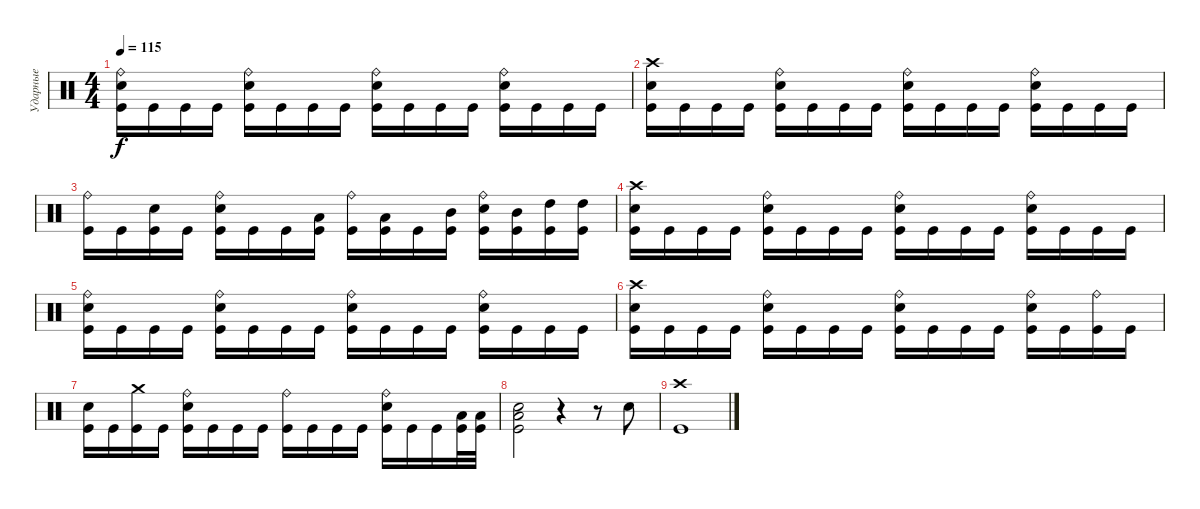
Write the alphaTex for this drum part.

\track ("Ударные" "Ударные") {instrument percussion}
\staff {score}
\articulation defaults
\ts (4 4)
\tempo 115
\clef neutral
\ks c
("Ride (bell)" "Electric Snare (hit)" "Kick (hit)").16{dy f} "Kick (hit)".16 "Kick (hit)".16 "Kick (hit)".16 ("Ride (bell)" "Electric Snare (hit)" "Kick (hit)").16 "Kick (hit)".16 "Kick (hit)".16 "Kick (hit)".16 ("Ride (bell)" "Electric Snare (hit)" "Kick (hit)").16 "Kick (hit)".16 "Kick (hit)".16 "Kick (hit)".16 ("Ride (bell)" "Electric Snare (hit)" "Kick (hit)").16 "Kick (hit)".16 "Kick (hit)".16 "Kick (hit)".16 |
("Crash high (hit)" "Electric Snare (hit)" "Kick (hit)").16 "Kick (hit)".16 "Kick (hit)".16 "Kick (hit)".16 ("Ride (bell)" "Electric Snare (hit)" "Kick (hit)").16 "Kick (hit)".16 "Kick (hit)".16 "Kick (hit)".16 ("Ride (bell)" "Electric Snare (hit)" "Kick (hit)").16 "Kick (hit)".16 "Kick (hit)".16 "Kick (hit)".16 ("Ride (bell)" "Electric Snare (hit)" "Kick (hit)").16 "Kick (hit)".16 "Kick (hit)".16 "Kick (hit)".16 |
("Ride (bell)" "Kick (hit)").16 "Kick (hit)".16 ("Electric Snare (hit)" "Kick (hit)").16 "Kick (hit)".16 ("Ride (bell)" "Electric Snare (hit)" "Kick (hit)").16 "Kick (hit)".16 "Kick (hit)".16 ("Low Tom (hit)" "Kick (hit)").16 ("Ride (bell)" "Kick (hit)").16 ("Low Tom (hit)" "Kick (hit)").16 "Kick (hit)".16 ("Mid Tom (hit)" "Kick (hit)").16 ("Ride (bell)" "Electric Snare (hit)" "Kick (hit)").16 ("Mid Tom (hit)" "Kick (hit)").16 ("High Tom (hit)" "Kick (hit)").16 ("High Tom (hit)" "Kick (hit)").16 |
("Crash high (hit)" "Electric Snare (hit)" "Kick (hit)").16 "Kick (hit)".16 "Kick (hit)".16 "Kick (hit)".16 ("Ride (bell)" "Electric Snare (hit)" "Kick (hit)").16 "Kick (hit)".16 "Kick (hit)".16 "Kick (hit)".16 ("Ride (bell)" "Electric Snare (hit)" "Kick (hit)").16 "Kick (hit)".16 "Kick (hit)".16 "Kick (hit)".16 ("Ride (bell)" "Electric Snare (hit)" "Kick (hit)").16 "Kick (hit)".16 "Kick (hit)".16 "Kick (hit)".16 |
("Ride (bell)" "Electric Snare (hit)" "Kick (hit)").16 "Kick (hit)".16 "Kick (hit)".16 "Kick (hit)".16 ("Ride (bell)" "Electric Snare (hit)" "Kick (hit)").16 "Kick (hit)".16 "Kick (hit)".16 "Kick (hit)".16 ("Ride (bell)" "Electric Snare (hit)" "Kick (hit)").16 "Kick (hit)".16 "Kick (hit)".16 "Kick (hit)".16 ("Ride (bell)" "Electric Snare (hit)" "Kick (hit)").16 "Kick (hit)".16 "Kick (hit)".16 "Kick (hit)".16 |
("Crash high (hit)" "Electric Snare (hit)" "Kick (hit)").16 "Kick (hit)".16 "Kick (hit)".16 "Kick (hit)".16 ("Ride (bell)" "Electric Snare (hit)" "Kick (hit)").16 "Kick (hit)".16 "Kick (hit)".16 "Kick (hit)".16 ("Ride (bell)" "Electric Snare (hit)" "Kick (hit)").16 "Kick (hit)".16 "Kick (hit)".16 "Kick (hit)".16 ("Ride (bell)" "Electric Snare (hit)" "Kick (hit)").16 "Kick (hit)".16 ("Ride (bell)" "Kick (hit)").16 "Kick (hit)".16 |
("Electric Snare (hit)" "Kick (hit)").16 "Kick (hit)".16 ("Crash medium (hit)" "Kick (hit)").16 "Kick (hit)".16 ("Ride (bell)" "Electric Snare (hit)" "Kick (hit)").16 "Kick (hit)".16 "Kick (hit)".16 "Kick (hit)".16 ("Ride (bell)" "Kick (hit)").16 "Kick (hit)".16 "Kick (hit)".16 "Kick (hit)".16 ("Ride (bell)" "Electric Snare (hit)" "Kick (hit)").16 "Kick (hit)".16 "Kick (hit)".16 ("Low Tom (hit)" "Kick (hit)").32 ("Low Tom (hit)" "Kick (hit)").32 |
("Low Tom (hit)" "Electric Snare (hit)" "Kick (hit)").2 r.4 r.8 "Electric Snare (hit)".8 |
("Crash high (hit)" "Kick (hit)").1
